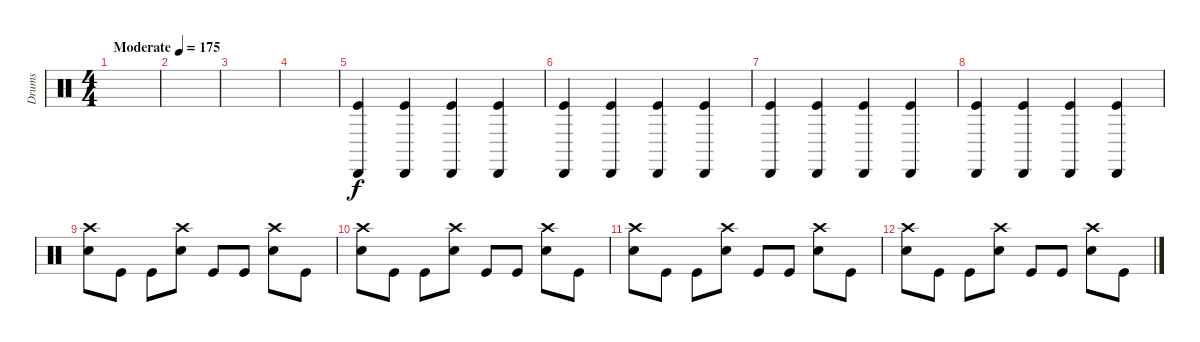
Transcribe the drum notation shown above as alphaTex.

\track ("Drums" "Drums") {instrument percussion}
\staff {score}
\articulation defaults
\ts (4 4)
\tempo (175 "Moderate")
\clef neutral
\ks c
|
|
|
|
("Cabasa (hit)" "Kick (hit)").4 ("Cabasa (hit)" "Kick (hit)").4 ("Cabasa (hit)" "Kick (hit)").4 ("Cabasa (hit)" "Kick (hit)").4 |
("Cabasa (hit)" "Kick (hit)").4 ("Cabasa (hit)" "Kick (hit)").4 ("Cabasa (hit)" "Kick (hit)").4 ("Cabasa (hit)" "Kick (hit)").4 |
("Cabasa (hit)" "Kick (hit)").4 ("Cabasa (hit)" "Kick (hit)").4 ("Cabasa (hit)" "Kick (hit)").4 ("Cabasa (hit)" "Kick (hit)").4 |
("Cabasa (hit)" "Kick (hit)").4 ("Cabasa (hit)" "Kick (hit)").4 ("Cabasa (hit)" "Kick (hit)").4 ("Cabasa (hit)" "Kick (hit)").4 |
("Crash high (hit)" "Electric Snare (hit)").8 "Kick (hit)".8 "Kick (hit)".8 ("Crash high (hit)" "Electric Snare (hit)").8 "Kick (hit)".8 "Kick (hit)".8 ("Crash high (hit)" "Electric Snare (hit)").8 "Kick (hit)".8 |
("Crash high (hit)" "Electric Snare (hit)").8 "Kick (hit)".8 "Kick (hit)".8 ("Crash high (hit)" "Electric Snare (hit)").8 "Kick (hit)".8 "Kick (hit)".8 ("Crash high (hit)" "Electric Snare (hit)").8 "Kick (hit)".8 |
("Crash high (hit)" "Electric Snare (hit)").8 "Kick (hit)".8 "Kick (hit)".8 ("Crash high (hit)" "Electric Snare (hit)").8 "Kick (hit)".8 "Kick (hit)".8 ("Crash high (hit)" "Electric Snare (hit)").8 "Kick (hit)".8 |
("Crash high (hit)" "Electric Snare (hit)").8 "Kick (hit)".8 "Kick (hit)".8 ("Crash high (hit)" "Electric Snare (hit)").8 "Kick (hit)".8 "Kick (hit)".8 ("Crash high (hit)" "Electric Snare (hit)").8 "Kick (hit)".8
